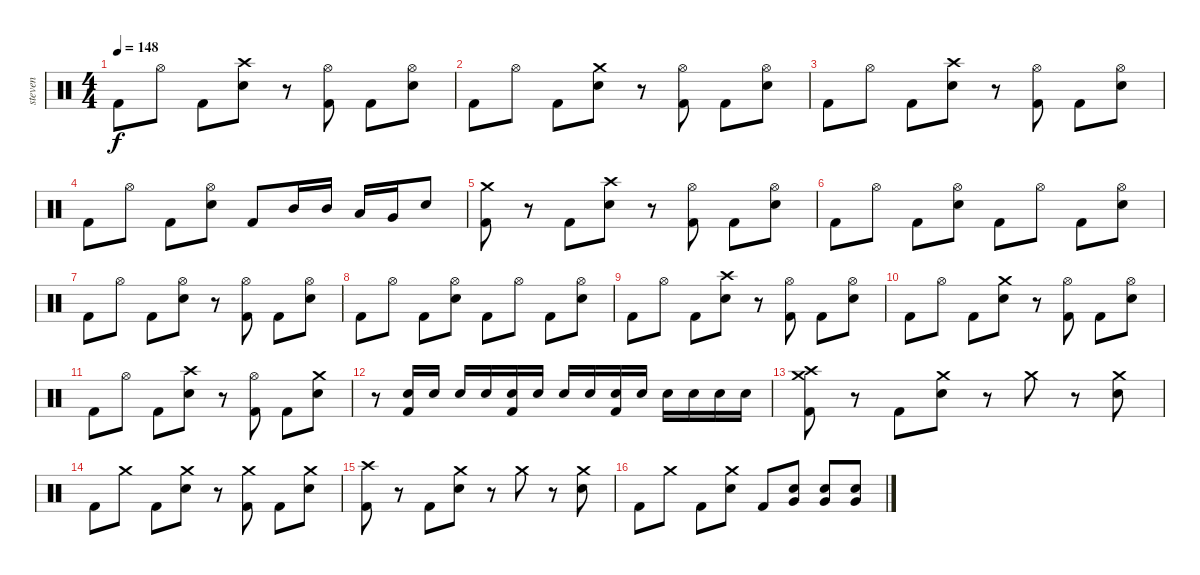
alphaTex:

\track ("steven" "steven") {instrument percussion}
\staff {score}
\articulation defaults
\ts (4 4)
\tempo 148
\clef neutral
\ks c "Kick (hit) 2".8{dy f} "Hi-Hat (open)".8 "Kick (hit) 2".8
("Crash high (hit)" "Electric Snare (hit)").8 r.8 ("Hi-Hat (open)" "Kick (hit) 2").8 "Kick (hit) 2".8 ("Hi-Hat (open)" "Electric Snare (hit)").8 |
"Kick (hit) 2".8 "Hi-Hat (open)".8 "Kick (hit) 2".8 ("Crash medium (hit)" "Electric Snare (hit)").8 r.8 ("Hi-Hat (open)" "Kick (hit) 2").8 "Kick (hit) 2".8 ("Hi-Hat (open)" "Electric Snare (hit)").8 |
"Kick (hit) 2".8 "Hi-Hat (open)".8 "Kick (hit) 2".8 ("Crash high (hit)" "Electric Snare (hit)").8 r.8 ("Hi-Hat (open)" "Kick (hit) 2").8 "Kick (hit) 2".8 ("Hi-Hat (open)" "Electric Snare (hit)").8 |
"Kick (hit) 2".8 "Hi-Hat (open)".8 "Kick (hit) 2".8 ("Hi-Hat (open)" "Electric Snare (hit)").8 "Kick (hit) 2".8 "Mid Tom (hit)".16 "Mid Tom (hit)".16 "Low Tom (hit)".16 "Very Low Tom (hit)".16 "Electric Snare (hit)".8 |
("Crash medium (hit)" "Kick (hit) 2").8 r.8 "Kick (hit) 2".8 ("Crash high (hit)" "Electric Snare (hit)").8 r.8 ("Hi-Hat (open)" "Kick (hit) 2").8 "Kick (hit) 2".8 ("Hi-Hat (open)" "Electric Snare (hit)").8 |
"Kick (hit) 2".8 "Hi-Hat (open)".8 "Kick (hit) 2".8 ("Hi-Hat (open)" "Electric Snare (hit)").8 "Kick (hit) 2".8 "Hi-Hat (open)".8 "Kick (hit) 2".8 ("Hi-Hat (open)" "Electric Snare (hit)").8 |
"Kick (hit) 2".8 "Hi-Hat (open)".8 "Kick (hit) 2".8 ("Hi-Hat (open)" "Electric Snare (hit)").8 r.8 ("Hi-Hat (open)" "Kick (hit) 2").8 "Kick (hit) 2".8 ("Hi-Hat (open)" "Electric Snare (hit)").8 |
"Kick (hit) 2".8 "Hi-Hat (open)".8 "Kick (hit) 2".8 ("Hi-Hat (open)" "Electric Snare (hit)").8 "Kick (hit) 2".8 "Hi-Hat (open)".8 "Kick (hit) 2".8 ("Hi-Hat (open)" "Electric Snare (hit)").8 |
"Kick (hit) 2".8 "Hi-Hat (open)".8 "Kick (hit) 2".8 ("Crash high (hit)" "Electric Snare (hit)").8 r.8 ("Hi-Hat (open)" "Kick (hit) 2").8 "Kick (hit) 2".8 ("Hi-Hat (open)" "Electric Snare (hit)").8 |
"Kick (hit) 2".8 "Hi-Hat (open)".8 "Kick (hit) 2".8 ("Crash medium (hit)" "Electric Snare (hit)").8 r.8 ("Hi-Hat (open)" "Kick (hit) 2").8 "Kick (hit) 2".8 ("Hi-Hat (open)" "Electric Snare (hit)").8 |
"Kick (hit) 2".8 "Hi-Hat (open)".8 "Kick (hit) 2".8 ("Crash high (hit)" "Electric Snare (hit)").8 r.8 ("Hi-Hat (open)" "Kick (hit) 2").8 "Kick (hit) 2".8 ("Crash medium (hit)" "Electric Snare (hit)").8 |
r.8 ("Electric Snare (hit)" "Kick (hit) 2").16 "Electric Snare (hit)".16 "Electric Snare (hit)".16 "Electric Snare (hit)".16 ("Electric Snare (hit)" "Kick (hit) 2").16 "Electric Snare (hit)".16 "Electric Snare (hit)".16 "Electric Snare (hit)".16 ("Electric Snare (hit)" "Kick (hit) 2").16 "Electric Snare (hit)".16 "Electric Snare (hit)".16 "Electric Snare (hit)".16 "Electric Snare (hit)".16 "Electric Snare (hit)".16 |
("Crash medium (hit)" "Crash high (hit)" "Kick (hit) 2").8 r.8 "Kick (hit) 2".8 ("Crash medium (hit)" "Electric Snare (hit)").8 r.8 "Crash medium (hit)".8 r.8 ("Crash medium (hit)" "Electric Snare (hit)").8 |
"Kick (hit) 2".8 "Crash medium (hit)".8 "Kick (hit) 2".8 ("Crash medium (hit)" "Electric Snare (hit)").8 r.8 ("Crash medium (hit)" "Kick (hit) 2").8 "Kick (hit) 2".8 ("Crash medium (hit)" "Electric Snare (hit)").8 |
("Crash high (hit)" "Kick (hit) 2").8 r.8 "Kick (hit) 2".8 ("Crash medium (hit)" "Electric Snare (hit)").8 r.8 "Crash medium (hit)".8 r.8 ("Crash medium (hit)" "Electric Snare (hit)").8 |
"Kick (hit) 2".8 "Crash medium (hit)".8 "Kick (hit) 2".8 ("Crash medium (hit)" "Electric Snare (hit)").8 "Kick (hit) 2".8 ("Very Low Tom (hit)" "Electric Snare (hit)").8 ("Very Low Tom (hit)" "Electric Snare (hit)").8 ("Very Low Tom (hit)" "Electric Snare (hit)").8
